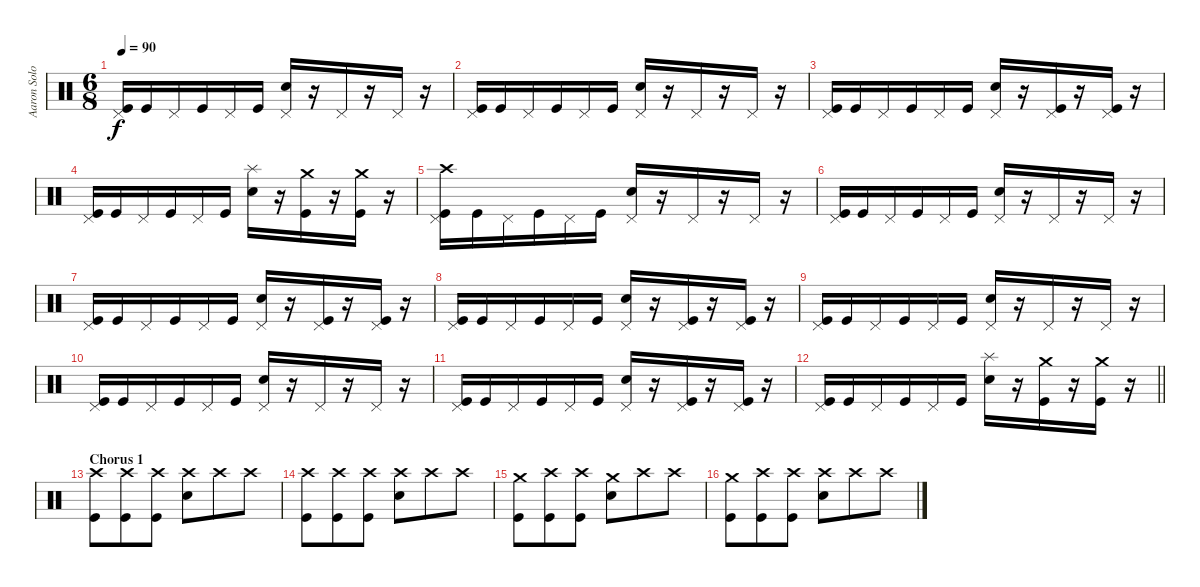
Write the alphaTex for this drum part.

\track ("Aaron Solowoniuk" "Aaron Solo") {instrument percussion}
\staff {score}
\articulation defaults
\ts (6 8)
\tempo 90
\clef neutral
\ks c
("Pedal Hi-Hat (hit)" "Kick (hit)").16{dy f} "Kick (hit)".16 "Pedal Hi-Hat (hit)".16 "Kick (hit)".16 "Pedal Hi-Hat (hit)".16 "Kick (hit)".16 ("Pedal Hi-Hat (hit)" "Electric Snare (hit)").16 r.16 "Pedal Hi-Hat (hit)".16 r.16 "Pedal Hi-Hat (hit)".16 r.16 |
("Pedal Hi-Hat (hit)" "Kick (hit)").16 "Kick (hit)".16 "Pedal Hi-Hat (hit)".16 "Kick (hit)".16 "Pedal Hi-Hat (hit)".16 "Kick (hit)".16 ("Pedal Hi-Hat (hit)" "Electric Snare (hit)").16 r.16 "Pedal Hi-Hat (hit)".16 r.16 "Pedal Hi-Hat (hit)".16 r.16 |
("Pedal Hi-Hat (hit)" "Kick (hit)").16 "Kick (hit)".16 "Pedal Hi-Hat (hit)".16 "Kick (hit)".16 "Pedal Hi-Hat (hit)".16 "Kick (hit)".16 ("Pedal Hi-Hat (hit)" "Electric Snare (hit)").16 r.16 ("Pedal Hi-Hat (hit)" "Kick (hit)").16 r.16 ("Pedal Hi-Hat (hit)" "Kick (hit)").16 r.16 |
("Pedal Hi-Hat (hit)" "Kick (hit)").16 "Kick (hit)".16 "Pedal Hi-Hat (hit)".16 "Kick (hit)".16 "Pedal Hi-Hat (hit)".16 "Kick (hit)".16 ("Splash (hit)" "Electric Snare (hit)").16 r.16 ("Crash medium (hit)" "Kick (hit)").16 r.16 ("Crash medium (hit)" "Kick (hit)").16 r.16 |
("Crash high (hit)" "Pedal Hi-Hat (hit)" "Kick (hit)").16 "Kick (hit)".16 "Pedal Hi-Hat (hit)".16 "Kick (hit)".16 "Pedal Hi-Hat (hit)".16 "Kick (hit)".16 ("Pedal Hi-Hat (hit)" "Electric Snare (hit)").16 r.16 "Pedal Hi-Hat (hit)".16 r.16 "Pedal Hi-Hat (hit)".16 r.16 |
("Pedal Hi-Hat (hit)" "Kick (hit)").16 "Kick (hit)".16 "Pedal Hi-Hat (hit)".16 "Kick (hit)".16 "Pedal Hi-Hat (hit)".16 "Kick (hit)".16 ("Pedal Hi-Hat (hit)" "Electric Snare (hit)").16 r.16 "Pedal Hi-Hat (hit)".16 r.16 "Pedal Hi-Hat (hit)".16 r.16 |
("Pedal Hi-Hat (hit)" "Kick (hit)").16 "Kick (hit)".16 "Pedal Hi-Hat (hit)".16 "Kick (hit)".16 "Pedal Hi-Hat (hit)".16 "Kick (hit)".16 ("Pedal Hi-Hat (hit)" "Electric Snare (hit)").16 r.16 ("Pedal Hi-Hat (hit)" "Kick (hit)").16 r.16 ("Pedal Hi-Hat (hit)" "Kick (hit)").16 r.16 |
("Pedal Hi-Hat (hit)" "Kick (hit)").16 "Kick (hit)".16 "Pedal Hi-Hat (hit)".16 "Kick (hit)".16 "Pedal Hi-Hat (hit)".16 "Kick (hit)".16 ("Pedal Hi-Hat (hit)" "Electric Snare (hit)").16 r.16 ("Pedal Hi-Hat (hit)" "Kick (hit)").16 r.16 ("Pedal Hi-Hat (hit)" "Kick (hit)").16 r.16 |
("Pedal Hi-Hat (hit)" "Kick (hit)").16 "Kick (hit)".16 "Pedal Hi-Hat (hit)".16 "Kick (hit)".16 "Pedal Hi-Hat (hit)".16 "Kick (hit)".16 ("Pedal Hi-Hat (hit)" "Electric Snare (hit)").16 r.16 "Pedal Hi-Hat (hit)".16 r.16 "Pedal Hi-Hat (hit)".16 r.16 |
("Pedal Hi-Hat (hit)" "Kick (hit)").16 "Kick (hit)".16 "Pedal Hi-Hat (hit)".16 "Kick (hit)".16 "Pedal Hi-Hat (hit)".16 "Kick (hit)".16 ("Pedal Hi-Hat (hit)" "Electric Snare (hit)").16 r.16 "Pedal Hi-Hat (hit)".16 r.16 "Pedal Hi-Hat (hit)".16 r.16 |
("Pedal Hi-Hat (hit)" "Kick (hit)").16 "Kick (hit)".16 "Pedal Hi-Hat (hit)".16 "Kick (hit)".16 "Pedal Hi-Hat (hit)".16 "Kick (hit)".16 ("Pedal Hi-Hat (hit)" "Electric Snare (hit)").16 r.16 ("Pedal Hi-Hat (hit)" "Kick (hit)").16 r.16 ("Pedal Hi-Hat (hit)" "Kick (hit)").16 r.16 |
\barLineRight lightlight
("Pedal Hi-Hat (hit)" "Kick (hit)").16 "Kick (hit)".16 "Pedal Hi-Hat (hit)".16 "Kick (hit)".16 "Pedal Hi-Hat (hit)".16 "Kick (hit)".16 ("Splash (hit)" "Electric Snare (hit)").16 r.16 ("Crash medium (hit)" "Kick (hit)").16 r.16 ("Crash medium (hit)" "Kick (hit)").16 r.16 |
\section ("" "Chorus 1")
("Crash high (hit)" "Kick (hit)").8 ("Crash high (hit)" "Kick (hit)").8 ("Crash high (hit)" "Kick (hit)").8 ("Crash high (hit)" "Electric Snare (hit)").8 "Crash high (hit)".8 "Crash high (hit)".8 |
("Crash high (hit)" "Kick (hit)").8 ("Crash high (hit)" "Kick (hit)").8 ("Crash high (hit)" "Kick (hit)").8 ("Crash high (hit)" "Electric Snare (hit)").8 "Crash high (hit)".8 "Crash high (hit)".8 |
("Crash medium (hit)" "Kick (hit)").8 ("Crash high (hit)" "Kick (hit)").8 ("Crash high (hit)" "Kick (hit)").8 ("Crash medium (hit)" "Electric Snare (hit)").8 "Crash high (hit)".8 "Crash high (hit)".8 |
("Crash medium (hit)" "Kick (hit)").8 ("Crash high (hit)" "Kick (hit)").8 ("Crash high (hit)" "Kick (hit)").8 ("Crash high (hit)" "Electric Snare (hit)").8 "Crash high (hit)".8 "Crash high (hit)".8
